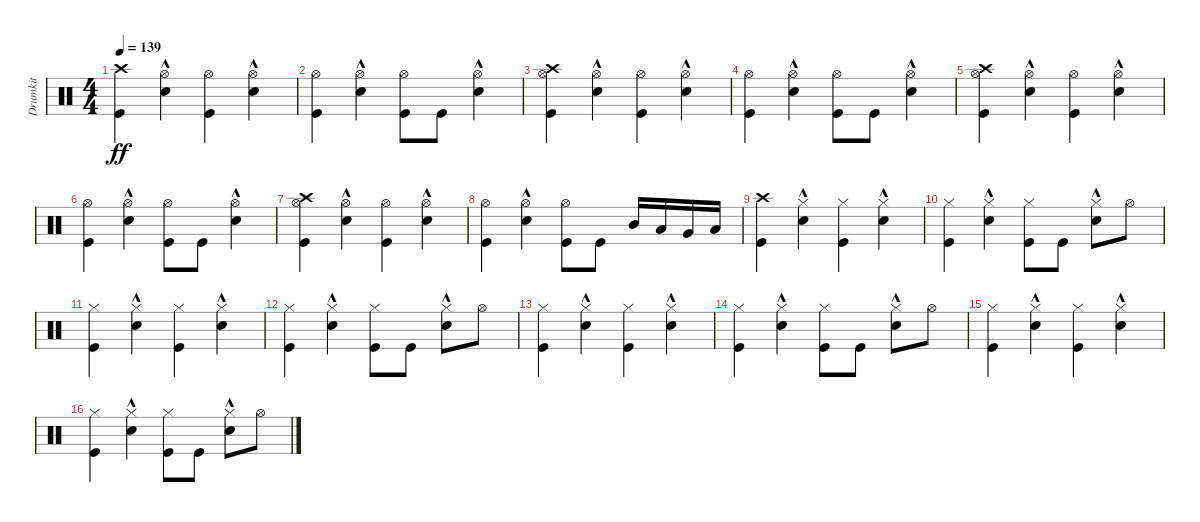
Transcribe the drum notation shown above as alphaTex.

\track ("Drumkit" "Drumkit") {instrument percussion}
\staff {score}
\articulation defaults
\ts (4 4)
\tempo 139
\clef neutral
\ks c
("Kick (hit)" "Crash high (hit)").4{dy ff} ("Hi-Hat (open)" "Snare (hit) 2"{hac}).4 ("Hi-Hat (open)" "Kick (hit)").4 ("Hi-Hat (open)" "Snare (hit) 2"{hac}).4 |
("Hi-Hat (open)" "Kick (hit)").4 ("Snare (hit) 2"{hac} "Hi-Hat (open)").4 ("Hi-Hat (open)" "Kick (hit)").8 "Kick (hit)".8 ("Snare (hit) 2"{hac} "Hi-Hat (open)").4 |
("Kick (hit)" "Hi-Hat (open)" "Crash high (hit)").4 ("Snare (hit) 2"{hac} "Hi-Hat (open)").4 ("Kick (hit)" "Hi-Hat (open)").4 ("Snare (hit) 2"{hac} "Hi-Hat (open)").4 |
("Hi-Hat (open)" "Kick (hit)").4 ("Hi-Hat (open)" "Snare (hit) 2"{hac}).4 ("Hi-Hat (open)" "Kick (hit)").8 "Kick (hit)".8 ("Hi-Hat (open)" "Snare (hit) 2"{hac}).4 |
("Hi-Hat (open)" "Kick (hit)" "Crash high (hit)").4 ("Hi-Hat (open)" "Snare (hit) 2"{hac}).4 ("Hi-Hat (open)" "Kick (hit)").4 ("Hi-Hat (open)" "Snare (hit) 2"{hac}).4 |
("Hi-Hat (open)" "Kick (hit)").4 ("Snare (hit) 2"{hac} "Hi-Hat (open)").4 ("Hi-Hat (open)" "Kick (hit)").8 "Kick (hit)".8 ("Snare (hit) 2"{hac} "Hi-Hat (open)").4 |
("Kick (hit)" "Hi-Hat (open)" "Crash high (hit)").4 ("Snare (hit) 2"{hac} "Hi-Hat (open)").4 ("Kick (hit)" "Hi-Hat (open)").4 ("Snare (hit) 2"{hac} "Hi-Hat (open)").4 |
("Hi-Hat (open)" "Kick (hit)").4 ("Hi-Hat (open)" "Snare (hit) 2"{hac}).4 ("Hi-Hat (open)" "Kick (hit)").8 "Kick (hit)".8 "Mid Tom (hit)".16 "Low Tom (hit)".16 "Very Low Tom (hit)".16 "Low Floor Tom (hit)".16 |
("Kick (hit)" "Crash high (hit)").4{volume 8} ("Hi-Hat (closed)" "Snare (hit) 2"{hac}).4 ("Hi-Hat (closed)" "Kick (hit)").4 ("Hi-Hat (closed)" "Snare (hit) 2"{hac}).4 |
("Hi-Hat (closed)" "Kick (hit)").4 ("Snare (hit) 2"{hac} "Hi-Hat (closed)").4 ("Hi-Hat (closed)" "Kick (hit)").8 "Kick (hit)".8 ("Snare (hit) 2"{hac} "Hi-Hat (closed)").8 "Hi-Hat (open)".8 |
("Kick (hit)" "Hi-Hat (closed)").4 ("Snare (hit) 2"{hac} "Hi-Hat (closed)").4 ("Kick (hit)" "Hi-Hat (closed)").4 ("Snare (hit) 2"{hac} "Hi-Hat (closed)").4 |
("Hi-Hat (closed)" "Kick (hit)").4 ("Hi-Hat (closed)" "Snare (hit) 2"{hac}).4 ("Hi-Hat (closed)" "Kick (hit)").8 "Kick (hit)".8 ("Hi-Hat (closed)" "Snare (hit) 2"{hac}).8 "Hi-Hat (open)".8 |
("Hi-Hat (closed)" "Kick (hit)").4 ("Hi-Hat (closed)" "Snare (hit) 2"{hac}).4 ("Hi-Hat (closed)" "Kick (hit)").4 ("Hi-Hat (closed)" "Snare (hit) 2"{hac}).4 |
("Hi-Hat (closed)" "Kick (hit)").4 ("Snare (hit) 2"{hac} "Hi-Hat (closed)").4 ("Hi-Hat (closed)" "Kick (hit)").8 "Kick (hit)".8 ("Snare (hit) 2"{hac} "Hi-Hat (closed)").8 "Hi-Hat (open)".8 |
("Kick (hit)" "Hi-Hat (closed)").4 ("Snare (hit) 2"{hac} "Hi-Hat (closed)").4 ("Kick (hit)" "Hi-Hat (closed)").4 ("Snare (hit) 2"{hac} "Hi-Hat (closed)").4 |
("Hi-Hat (closed)" "Kick (hit)").4 ("Hi-Hat (closed)" "Snare (hit) 2"{hac}).4 ("Hi-Hat (closed)" "Kick (hit)").8 "Kick (hit)".8 ("Hi-Hat (closed)" "Snare (hit) 2"{hac}).8 "Hi-Hat (open)".8
